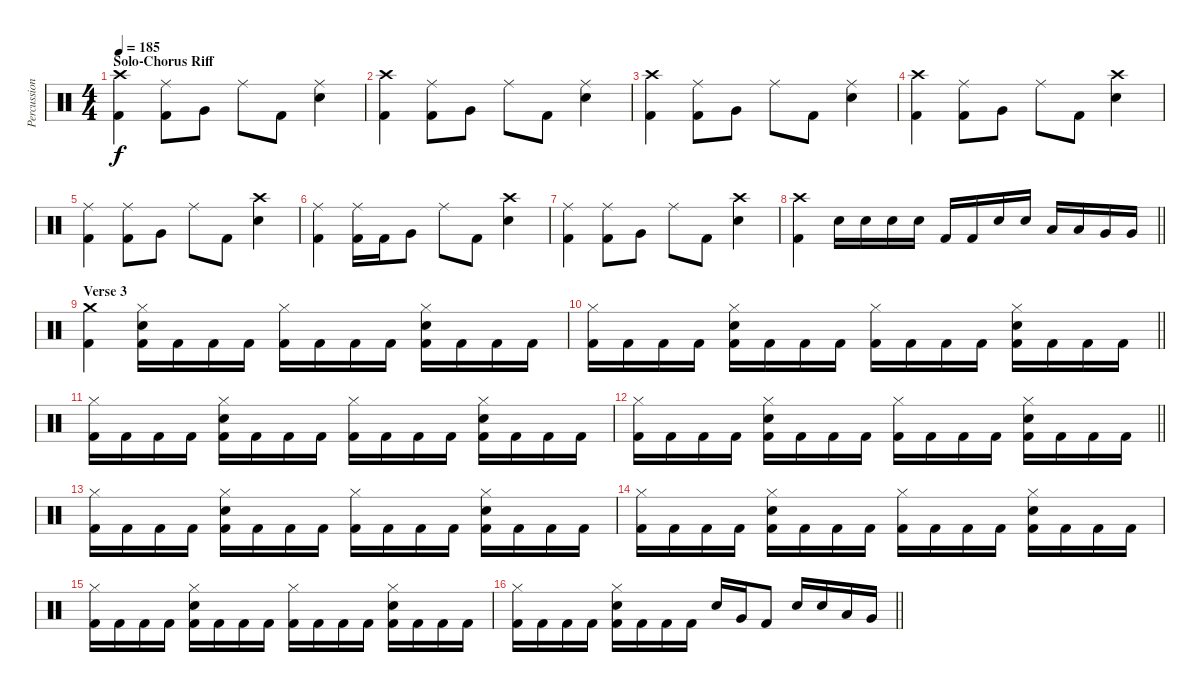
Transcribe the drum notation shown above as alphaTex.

\track ("Percussion" "Percussion") {instrument percussion}
\staff {score}
\articulation defaults
\ts (4 4)
\section ("" "Solo-Chorus Riff")
\tempo 185
\clef neutral
\ks c
("Crash high (hit)" "Kick (hit) 2").4{dy f} ("Ride (middle)" "Kick (hit) 2").8 "Very Low Tom (hit)".8 "Ride (middle)".8 "Kick (hit) 2".8 ("Ride (middle)" "Snare (hit) 2").4 |
("Crash high (hit)" "Kick (hit) 2").4 ("Ride (middle)" "Kick (hit) 2").8 "Very Low Tom (hit)".8 "Ride (middle)".8 "Kick (hit) 2".8 ("Ride (middle)" "Snare (hit) 2").4 |
("Crash high (hit)" "Kick (hit) 2").4 ("Ride (middle)" "Kick (hit) 2").8 "Very Low Tom (hit)".8 "Ride (middle)".8 "Kick (hit) 2".8 ("Ride (middle)" "Snare (hit) 2").4 |
("Crash high (hit)" "Kick (hit) 2").4 ("Ride (middle)" "Kick (hit) 2").8 "Very Low Tom (hit)".8 "Ride (middle)".8 "Kick (hit) 2".8 ("Crash high (hit)" "Snare (hit) 2").4 |
("Ride (middle)" "Kick (hit) 2").4 ("Ride (middle)" "Kick (hit) 2").8 "Very Low Tom (hit)".8 "Ride (middle)".8 "Kick (hit) 2".8 ("Crash high (hit)" "Snare (hit) 2").4 |
("Ride (middle)" "Kick (hit) 2").4 ("Ride (middle)" "Kick (hit) 2").16 "Kick (hit) 2".16 "Very Low Tom (hit)".8 "Ride (middle)".8 "Kick (hit) 2".8 ("Crash high (hit)" "Snare (hit) 2").4 |
("Ride (middle)" "Kick (hit) 2").4 ("Ride (middle)" "Kick (hit) 2").8 "Very Low Tom (hit)".8 "Ride (middle)".8 "Kick (hit) 2".8 ("Crash high (hit)" "Snare (hit) 2").4 |
\barLineRight lightlight
("Crash high (hit)" "Kick (hit) 2").4 "Snare (hit) 2".16 "Snare (hit) 2".16 "Snare (hit) 2".16 "Snare (hit) 2".16 "Kick (hit) 2".16 "Kick (hit) 2".16 "Snare (hit) 2".16 "Snare (hit) 2".16 "Low Tom (hit)".16 "Low Tom (hit)".16 "Very Low Tom (hit)".16 "Very Low Tom (hit)".16 |
\section ("" "Verse 3")
("Crash medium (hit)" "Kick (hit) 2").4 ("Hi-Hat (closed)" "Snare (hit) 2" "Kick (hit) 2").16 "Kick (hit) 2".16 "Kick (hit) 2".16 "Kick (hit) 2".16 ("Hi-Hat (closed)" "Kick (hit) 2").16 "Kick (hit) 2".16 "Kick (hit) 2".16 "Kick (hit) 2".16 ("Hi-Hat (closed)" "Snare (hit) 2" "Kick (hit) 2").16 "Kick (hit) 2".16 "Kick (hit) 2".16 "Kick (hit) 2".16 |
\barLineRight lightlight
("Hi-Hat (closed)" "Kick (hit) 2").16 "Kick (hit) 2".16 "Kick (hit) 2".16 "Kick (hit) 2".16 ("Hi-Hat (closed)" "Snare (hit) 2" "Kick (hit) 2").16 "Kick (hit) 2".16 "Kick (hit) 2".16 "Kick (hit) 2".16 ("Hi-Hat (closed)" "Kick (hit) 2").16 "Kick (hit) 2".16 "Kick (hit) 2".16 "Kick (hit) 2".16 ("Hi-Hat (closed)" "Snare (hit) 2" "Kick (hit) 2").16 "Kick (hit) 2".16 "Kick (hit) 2".16 "Kick (hit) 2".16 |
("Hi-Hat (closed)" "Kick (hit) 2").16 "Kick (hit) 2".16 "Kick (hit) 2".16 "Kick (hit) 2".16 ("Hi-Hat (closed)" "Snare (hit) 2" "Kick (hit) 2").16 "Kick (hit) 2".16 "Kick (hit) 2".16 "Kick (hit) 2".16 ("Hi-Hat (closed)" "Kick (hit) 2").16 "Kick (hit) 2".16 "Kick (hit) 2".16 "Kick (hit) 2".16 ("Hi-Hat (closed)" "Snare (hit) 2" "Kick (hit) 2").16 "Kick (hit) 2".16 "Kick (hit) 2".16 "Kick (hit) 2".16 |
\barLineRight lightlight
("Hi-Hat (closed)" "Kick (hit) 2").16 "Kick (hit) 2".16 "Kick (hit) 2".16 "Kick (hit) 2".16 ("Hi-Hat (closed)" "Snare (hit) 2" "Kick (hit) 2").16 "Kick (hit) 2".16 "Kick (hit) 2".16 "Kick (hit) 2".16 ("Hi-Hat (closed)" "Kick (hit) 2").16 "Kick (hit) 2".16 "Kick (hit) 2".16 "Kick (hit) 2".16 ("Hi-Hat (closed)" "Snare (hit) 2" "Kick (hit) 2").16 "Kick (hit) 2".16 "Kick (hit) 2".16 "Kick (hit) 2".16 |
("Hi-Hat (closed)" "Kick (hit) 2").16 "Kick (hit) 2".16 "Kick (hit) 2".16 "Kick (hit) 2".16 ("Hi-Hat (closed)" "Snare (hit) 2" "Kick (hit) 2").16 "Kick (hit) 2".16 "Kick (hit) 2".16 "Kick (hit) 2".16 ("Hi-Hat (closed)" "Kick (hit) 2").16 "Kick (hit) 2".16 "Kick (hit) 2".16 "Kick (hit) 2".16 ("Hi-Hat (closed)" "Snare (hit) 2" "Kick (hit) 2").16 "Kick (hit) 2".16 "Kick (hit) 2".16 "Kick (hit) 2".16 |
("Hi-Hat (closed)" "Kick (hit) 2").16 "Kick (hit) 2".16 "Kick (hit) 2".16 "Kick (hit) 2".16 ("Hi-Hat (closed)" "Snare (hit) 2" "Kick (hit) 2").16 "Kick (hit) 2".16 "Kick (hit) 2".16 "Kick (hit) 2".16 ("Hi-Hat (closed)" "Kick (hit) 2").16 "Kick (hit) 2".16 "Kick (hit) 2".16 "Kick (hit) 2".16 ("Hi-Hat (closed)" "Snare (hit) 2" "Kick (hit) 2").16 "Kick (hit) 2".16 "Kick (hit) 2".16 "Kick (hit) 2".16 |
("Hi-Hat (closed)" "Kick (hit) 2").16 "Kick (hit) 2".16 "Kick (hit) 2".16 "Kick (hit) 2".16 ("Hi-Hat (closed)" "Snare (hit) 2" "Kick (hit) 2").16 "Kick (hit) 2".16 "Kick (hit) 2".16 "Kick (hit) 2".16 ("Hi-Hat (closed)" "Kick (hit) 2").16 "Kick (hit) 2".16 "Kick (hit) 2".16 "Kick (hit) 2".16 ("Hi-Hat (closed)" "Snare (hit) 2" "Kick (hit) 2").16 "Kick (hit) 2".16 "Kick (hit) 2".16 "Kick (hit) 2".16 |
\barLineRight lightlight
("Hi-Hat (closed)" "Kick (hit) 2").16 "Kick (hit) 2".16 "Kick (hit) 2".16 "Kick (hit) 2".16 ("Hi-Hat (closed)" "Snare (hit) 2" "Kick (hit) 2").16 "Kick (hit) 2".16 "Kick (hit) 2".16 "Kick (hit) 2".16 "Snare (hit) 2".16 "Very Low Tom (hit)".16 "Kick (hit) 2".8 "Snare (hit) 2".16 "Snare (hit) 2".16 "Low Tom (hit)".16 "Very Low Tom (hit)".16
